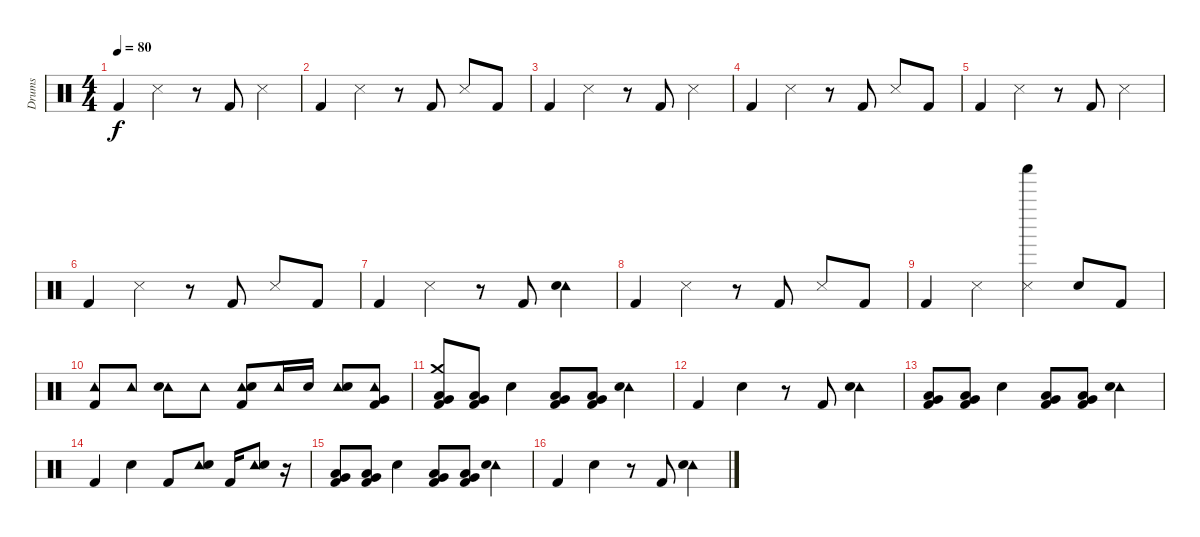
\track ("Drums" "Drums") {instrument percussion}
\staff {score}
\articulation defaults
\ts (4 4)
\tempo 80
\clef neutral
\ks c "Kick (hit) 2".4{dy f} "Snare (side stick) 3".4
r.8 "Kick (hit) 2".8 "Snare (side stick) 3".4 |
"Kick (hit) 2".4 "Snare (side stick) 3".4 r.8 "Kick (hit) 2".8 "Snare (side stick) 3".8 "Kick (hit) 2".8 |
"Kick (hit) 2".4 "Snare (side stick) 3".4 r.8 "Kick (hit) 2".8 "Snare (side stick) 3".4 |
"Kick (hit) 2".4 "Snare (side stick) 3".4 r.8 "Kick (hit) 2".8 "Snare (side stick) 3".8 "Kick (hit) 2".8 |
"Kick (hit) 2".4 "Snare (side stick) 3".4 r.8 "Kick (hit) 2".8 "Snare (side stick) 3".4 |
"Kick (hit) 2".4 "Snare (side stick) 3".4 r.8 "Kick (hit) 2".8 "Snare (side stick) 3".8 "Kick (hit) 2".8 |
"Kick (hit) 2".4 "Snare (side stick) 3".4 r.8 "Kick (hit) 2".8 ("Tambourine (hit)" "Electric Snare (hit)").4 |
"Kick (hit) 2".4 "Snare (side stick) 3".4 r.8 "Kick (hit) 2".8 "Snare (side stick) 3".8 "Kick (hit) 2".8 |
"Kick (hit) 2".4 "Snare (side stick) 3".4 ("Shaker (hit)" "Snare (side stick) 3").4 "Electric Snare (hit)".8 "Kick (hit) 2".8 |
("Tambourine (hit)" "Kick (hit) 2").8 "Tambourine (hit)".8 ("Tambourine (hit)" "Electric Snare (hit)").8 "Tambourine (hit)".8 ("Tambourine (hit)" "Electric Snare (hit)" "Kick (hit) 2").8 "Tambourine (hit)".16 "Electric Snare (hit)".16 ("Tambourine (hit)" "Electric Snare (hit)").8 ("Tambourine (hit)" "Very Low Tom (hit)" "Kick (hit) 2").8 |
("Crash medium (hit)" "Very Low Tom (hit)" "Kick (hit) 2" "Low Floor Tom (hit)").8 ("Very Low Tom (hit)" "Kick (hit) 2" "Low Floor Tom (hit)").8 "Electric Snare (hit)".4 ("Very Low Tom (hit)" "Kick (hit) 2" "Low Floor Tom (hit)").8 ("Very Low Tom (hit)" "Kick (hit) 2" "Low Floor Tom (hit)").8 ("Tambourine (hit)" "Electric Snare (hit)").4 |
"Kick (hit) 2".4 "Electric Snare (hit)".4 r.8 "Kick (hit) 2".8 ("Tambourine (hit)" "Electric Snare (hit)").4 |
("Very Low Tom (hit)" "Kick (hit) 2" "Low Floor Tom (hit)").8 ("Very Low Tom (hit)" "Kick (hit) 2" "Low Floor Tom (hit)").8 "Electric Snare (hit)".4 ("Very Low Tom (hit)" "Kick (hit) 2" "Low Floor Tom (hit)").8 ("Very Low Tom (hit)" "Kick (hit) 2" "Low Floor Tom (hit)").8 ("Tambourine (hit)" "Electric Snare (hit)").4 |
"Kick (hit) 2".4 "Electric Snare (hit)".4 "Kick (hit) 2".8 ("Tambourine (hit)" "Electric Snare (hit)").8 "Kick (hit) 2".16 ("Tambourine (hit)" "Electric Snare (hit)").8 r.16 |
("Very Low Tom (hit)" "Kick (hit) 2" "Low Floor Tom (hit)").8 ("Very Low Tom (hit)" "Kick (hit) 2" "Low Floor Tom (hit)").8 "Electric Snare (hit)".4 ("Very Low Tom (hit)" "Kick (hit) 2" "Low Floor Tom (hit)").8 ("Very Low Tom (hit)" "Kick (hit) 2" "Low Floor Tom (hit)").8 ("Tambourine (hit)" "Electric Snare (hit)").4 |
"Kick (hit) 2".4 "Electric Snare (hit)".4 r.8 "Kick (hit) 2".8 ("Tambourine (hit)" "Electric Snare (hit)").4
